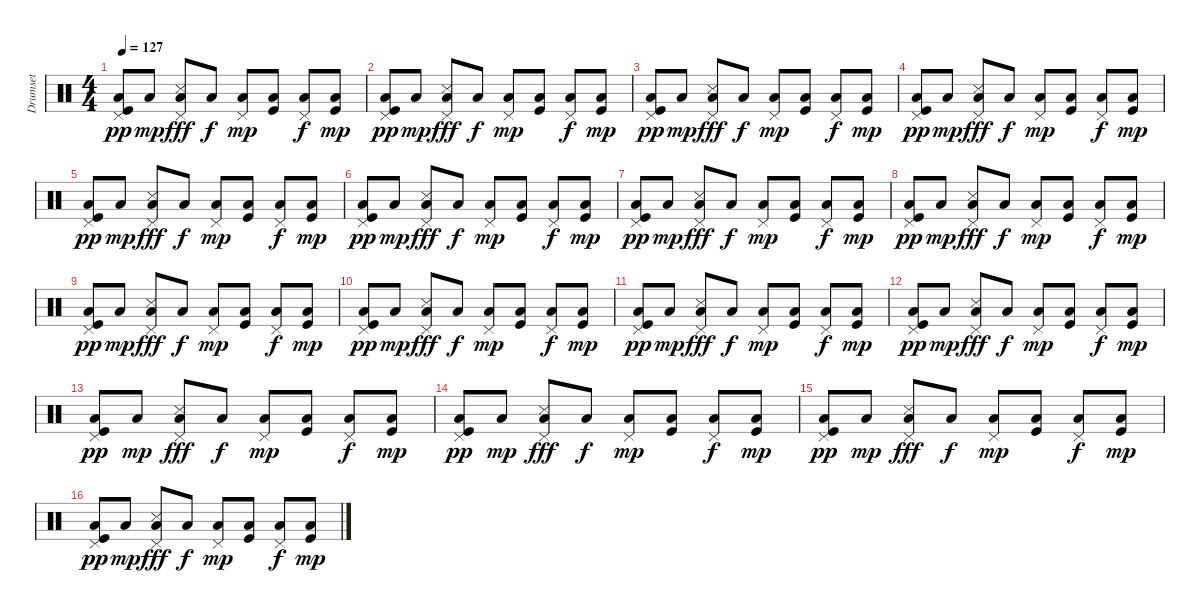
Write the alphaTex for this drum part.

\track ("Drumset" "Drumset") {instrument percussion}
\staff {score}
\articulation defaults
\ts (4 4)
\tempo 127
\clef neutral
\ks c
("Pedal Hi-Hat (hit)" "Low Floor Tom (hit)" "Kick (hit)").8{dy pp} "Low Floor Tom (hit)".8{dy mp} ("Pedal Hi-Hat (hit)" "Snare (side stick) 3" "Low Floor Tom (hit)").8{dy fff} "Low Floor Tom (hit)".8{dy f} ("Pedal Hi-Hat (hit)" "Low Floor Tom (hit)").8{dy mp} ("Low Floor Tom (hit)" "Kick (hit)").8 ("Pedal Hi-Hat (hit)" "Low Floor Tom (hit)").8{dy f} ("Low Floor Tom (hit)" "Kick (hit)").8{dy mp} |
("Pedal Hi-Hat (hit)" "Low Floor Tom (hit)" "Kick (hit)").8{dy pp} "Low Floor Tom (hit)".8{dy mp} ("Pedal Hi-Hat (hit)" "Snare (side stick) 3" "Low Floor Tom (hit)").8{dy fff} "Low Floor Tom (hit)".8{dy f} ("Pedal Hi-Hat (hit)" "Low Floor Tom (hit)").8{dy mp} ("Low Floor Tom (hit)" "Kick (hit)").8 ("Pedal Hi-Hat (hit)" "Low Floor Tom (hit)").8{dy f} ("Low Floor Tom (hit)" "Kick (hit)").8{dy mp} |
("Pedal Hi-Hat (hit)" "Low Floor Tom (hit)" "Kick (hit)").8{dy pp} "Low Floor Tom (hit)".8{dy mp} ("Pedal Hi-Hat (hit)" "Snare (side stick) 3" "Low Floor Tom (hit)").8{dy fff} "Low Floor Tom (hit)".8{dy f} ("Pedal Hi-Hat (hit)" "Low Floor Tom (hit)").8{dy mp} ("Low Floor Tom (hit)" "Kick (hit)").8 ("Pedal Hi-Hat (hit)" "Low Floor Tom (hit)").8{dy f} ("Low Floor Tom (hit)" "Kick (hit)").8{dy mp} |
("Pedal Hi-Hat (hit)" "Low Floor Tom (hit)" "Kick (hit)").8{dy pp} "Low Floor Tom (hit)".8{dy mp} ("Pedal Hi-Hat (hit)" "Snare (side stick) 3" "Low Floor Tom (hit)").8{dy fff} "Low Floor Tom (hit)".8{dy f} ("Pedal Hi-Hat (hit)" "Low Floor Tom (hit)").8{dy mp} ("Low Floor Tom (hit)" "Kick (hit)").8 ("Pedal Hi-Hat (hit)" "Low Floor Tom (hit)").8{dy f} ("Low Floor Tom (hit)" "Kick (hit)").8{dy mp} |
("Pedal Hi-Hat (hit)" "Low Floor Tom (hit)" "Kick (hit)").8{dy pp} "Low Floor Tom (hit)".8{dy mp} ("Pedal Hi-Hat (hit)" "Snare (side stick) 3" "Low Floor Tom (hit)").8{dy fff} "Low Floor Tom (hit)".8{dy f} ("Pedal Hi-Hat (hit)" "Low Floor Tom (hit)").8{dy mp} ("Low Floor Tom (hit)" "Kick (hit)").8 ("Pedal Hi-Hat (hit)" "Low Floor Tom (hit)").8{dy f} ("Low Floor Tom (hit)" "Kick (hit)").8{dy mp} |
("Pedal Hi-Hat (hit)" "Low Floor Tom (hit)" "Kick (hit)").8{dy pp} "Low Floor Tom (hit)".8{dy mp} ("Pedal Hi-Hat (hit)" "Snare (side stick) 3" "Low Floor Tom (hit)").8{dy fff} "Low Floor Tom (hit)".8{dy f} ("Pedal Hi-Hat (hit)" "Low Floor Tom (hit)").8{dy mp} ("Low Floor Tom (hit)" "Kick (hit)").8 ("Pedal Hi-Hat (hit)" "Low Floor Tom (hit)").8{dy f} ("Low Floor Tom (hit)" "Kick (hit)").8{dy mp} |
("Pedal Hi-Hat (hit)" "Low Floor Tom (hit)" "Kick (hit)").8{dy pp} "Low Floor Tom (hit)".8{dy mp} ("Pedal Hi-Hat (hit)" "Snare (side stick) 3" "Low Floor Tom (hit)").8{dy fff} "Low Floor Tom (hit)".8{dy f} ("Pedal Hi-Hat (hit)" "Low Floor Tom (hit)").8{dy mp} ("Low Floor Tom (hit)" "Kick (hit)").8 ("Pedal Hi-Hat (hit)" "Low Floor Tom (hit)").8{dy f} ("Low Floor Tom (hit)" "Kick (hit)").8{dy mp} |
("Pedal Hi-Hat (hit)" "Low Floor Tom (hit)" "Kick (hit)").8{dy pp} "Low Floor Tom (hit)".8{dy mp} ("Pedal Hi-Hat (hit)" "Snare (side stick) 3" "Low Floor Tom (hit)").8{dy fff} "Low Floor Tom (hit)".8{dy f} ("Pedal Hi-Hat (hit)" "Low Floor Tom (hit)").8{dy mp} ("Low Floor Tom (hit)" "Kick (hit)").8 ("Pedal Hi-Hat (hit)" "Low Floor Tom (hit)").8{dy f} ("Low Floor Tom (hit)" "Kick (hit)").8{dy mp} |
("Pedal Hi-Hat (hit)" "Low Floor Tom (hit)" "Kick (hit)").8{dy pp} "Low Floor Tom (hit)".8{dy mp} ("Pedal Hi-Hat (hit)" "Snare (side stick) 3" "Low Floor Tom (hit)").8{dy fff} "Low Floor Tom (hit)".8{dy f} ("Pedal Hi-Hat (hit)" "Low Floor Tom (hit)").8{dy mp} ("Low Floor Tom (hit)" "Kick (hit)").8 ("Pedal Hi-Hat (hit)" "Low Floor Tom (hit)").8{dy f} ("Low Floor Tom (hit)" "Kick (hit)").8{dy mp} |
("Pedal Hi-Hat (hit)" "Low Floor Tom (hit)" "Kick (hit)").8{dy pp} "Low Floor Tom (hit)".8{dy mp} ("Pedal Hi-Hat (hit)" "Snare (side stick) 3" "Low Floor Tom (hit)").8{dy fff} "Low Floor Tom (hit)".8{dy f} ("Pedal Hi-Hat (hit)" "Low Floor Tom (hit)").8{dy mp} ("Low Floor Tom (hit)" "Kick (hit)").8 ("Pedal Hi-Hat (hit)" "Low Floor Tom (hit)").8{dy f} ("Low Floor Tom (hit)" "Kick (hit)").8{dy mp} |
("Pedal Hi-Hat (hit)" "Low Floor Tom (hit)" "Kick (hit)").8{dy pp} "Low Floor Tom (hit)".8{dy mp} ("Pedal Hi-Hat (hit)" "Snare (side stick) 3" "Low Floor Tom (hit)").8{dy fff} "Low Floor Tom (hit)".8{dy f} ("Pedal Hi-Hat (hit)" "Low Floor Tom (hit)").8{dy mp} ("Low Floor Tom (hit)" "Kick (hit)").8 ("Pedal Hi-Hat (hit)" "Low Floor Tom (hit)").8{dy f} ("Low Floor Tom (hit)" "Kick (hit)").8{dy mp} |
("Pedal Hi-Hat (hit)" "Low Floor Tom (hit)" "Kick (hit)").8{dy pp} "Low Floor Tom (hit)".8{dy mp} ("Pedal Hi-Hat (hit)" "Snare (side stick) 3" "Low Floor Tom (hit)").8{dy fff} "Low Floor Tom (hit)".8{dy f} ("Pedal Hi-Hat (hit)" "Low Floor Tom (hit)").8{dy mp} ("Low Floor Tom (hit)" "Kick (hit)").8 ("Pedal Hi-Hat (hit)" "Low Floor Tom (hit)").8{dy f} ("Low Floor Tom (hit)" "Kick (hit)").8{dy mp} |
("Pedal Hi-Hat (hit)" "Low Floor Tom (hit)" "Kick (hit)").8{dy pp} "Low Floor Tom (hit)".8{dy mp} ("Pedal Hi-Hat (hit)" "Snare (side stick) 3" "Low Floor Tom (hit)").8{dy fff} "Low Floor Tom (hit)".8{dy f} ("Pedal Hi-Hat (hit)" "Low Floor Tom (hit)").8{dy mp} ("Low Floor Tom (hit)" "Kick (hit)").8 ("Pedal Hi-Hat (hit)" "Low Floor Tom (hit)").8{dy f} ("Low Floor Tom (hit)" "Kick (hit)").8{dy mp} |
("Pedal Hi-Hat (hit)" "Low Floor Tom (hit)" "Kick (hit)").8{dy pp} "Low Floor Tom (hit)".8{dy mp} ("Pedal Hi-Hat (hit)" "Snare (side stick) 3" "Low Floor Tom (hit)").8{dy fff} "Low Floor Tom (hit)".8{dy f} ("Pedal Hi-Hat (hit)" "Low Floor Tom (hit)").8{dy mp} ("Low Floor Tom (hit)" "Kick (hit)").8 ("Pedal Hi-Hat (hit)" "Low Floor Tom (hit)").8{dy f} ("Low Floor Tom (hit)" "Kick (hit)").8{dy mp} |
("Pedal Hi-Hat (hit)" "Low Floor Tom (hit)" "Kick (hit)").8{dy pp} "Low Floor Tom (hit)".8{dy mp} ("Pedal Hi-Hat (hit)" "Snare (side stick) 3" "Low Floor Tom (hit)").8{dy fff} "Low Floor Tom (hit)".8{dy f} ("Pedal Hi-Hat (hit)" "Low Floor Tom (hit)").8{dy mp} ("Low Floor Tom (hit)" "Kick (hit)").8 ("Pedal Hi-Hat (hit)" "Low Floor Tom (hit)").8{dy f} ("Low Floor Tom (hit)" "Kick (hit)").8{dy mp} |
("Pedal Hi-Hat (hit)" "Low Floor Tom (hit)" "Kick (hit)").8{dy pp} "Low Floor Tom (hit)".8{dy mp} ("Pedal Hi-Hat (hit)" "Snare (side stick) 3" "Low Floor Tom (hit)").8{dy fff} "Low Floor Tom (hit)".8{dy f} ("Pedal Hi-Hat (hit)" "Low Floor Tom (hit)").8{dy mp} ("Low Floor Tom (hit)" "Kick (hit)").8 ("Pedal Hi-Hat (hit)" "Low Floor Tom (hit)").8{dy f} ("Low Floor Tom (hit)" "Kick (hit)").8{dy mp}
